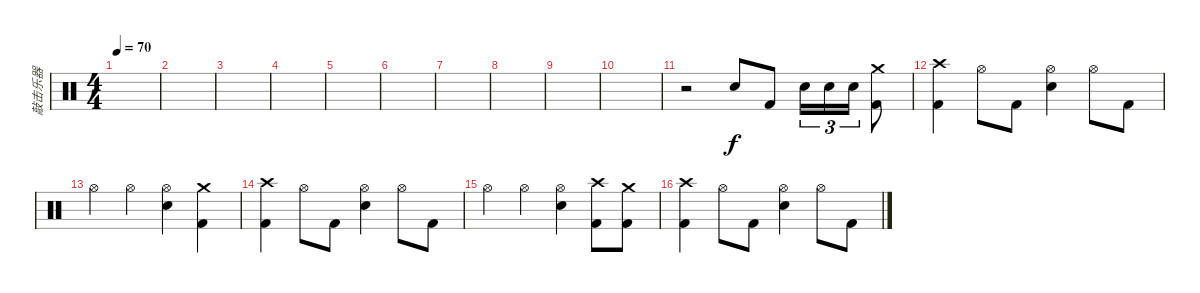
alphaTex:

\track ("敲击乐器" "敲击乐器") {instrument percussion}
\staff {score}
\articulation defaults
\ts (4 4)
\tempo 70
\clef neutral
\ks c
|
|
|
|
|
|
|
|
|
|
r.2 "Snare (hit) 2".8{dy f} "Kick (hit) 2".8 "Snare (hit) 2".16{tu (3 2)} "Snare (hit) 2".16{tu (3 2)} "Snare (hit) 2".16{tu (3 2)} ("Crash medium (hit)" "Kick (hit) 2").8 |
("Crash high (hit)" "Kick (hit) 2").4 "Hi-Hat (open)".8 "Kick (hit) 2".8 ("Hi-Hat (open)" "Snare (hit) 2").4 "Hi-Hat (open)".8 "Kick (hit) 2".8 |
"Hi-Hat (open)".4 "Hi-Hat (open)".4 ("Hi-Hat (open)" "Snare (hit) 2").4 ("Crash medium (hit)" "Kick (hit) 2").4 |
("Kick (hit) 2" "Crash high (hit)").4 "Hi-Hat (open)".8 "Kick (hit) 2".8 ("Hi-Hat (open)" "Snare (hit) 2").4 "Hi-Hat (open)".8 "Kick (hit) 2".8 |
"Hi-Hat (open)".4 "Hi-Hat (open)".4 ("Hi-Hat (open)" "Snare (hit) 2").4 ("Crash high (hit)" "Kick (hit) 2").8 ("Crash medium (hit)" "Kick (hit) 2").8 |
("Kick (hit) 2" "Crash high (hit)").4 "Hi-Hat (open)".8 "Kick (hit) 2".8 ("Hi-Hat (open)" "Snare (hit) 2").4 "Hi-Hat (open)".8 "Kick (hit) 2".8
